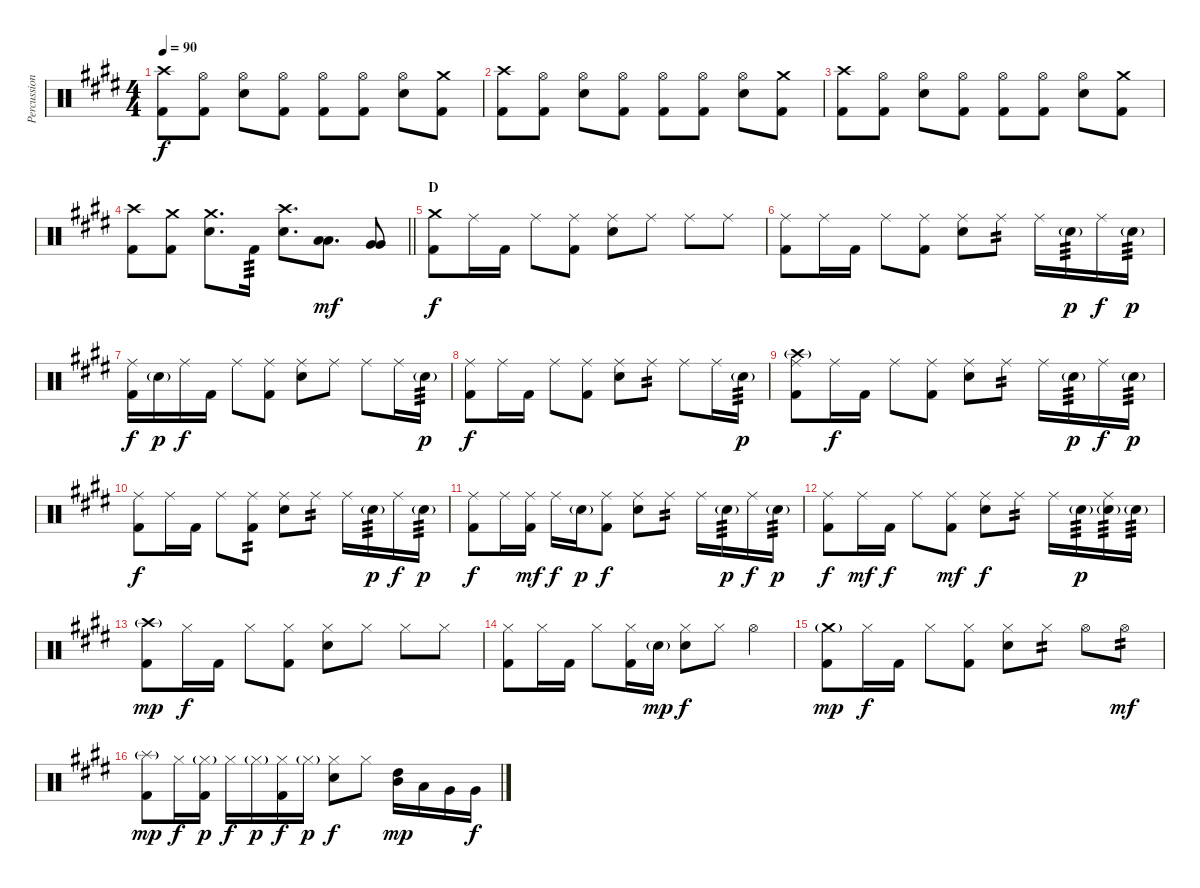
\track ("Percussion" "Percussion") {instrument percussion}
\staff {score}
\articulation defaults
\ts (4 4)
\tempo 90
\clef neutral
\ks c#minor
("Crash high (hit)" "Kick (hit) 2").8{dy f} ("Hi-Hat (open)" "Kick (hit) 2").8 ("Hi-Hat (open)" "Snare (hit) 2").8 ("Hi-Hat (open)" "Kick (hit) 2").8 ("Hi-Hat (open)" "Kick (hit) 2").8 ("Hi-Hat (open)" "Kick (hit) 2").8 ("Hi-Hat (open)" "Snare (hit) 2").8 ("Crash medium (hit)" "Kick (hit) 2").8 |
("Crash high (hit)" "Kick (hit) 2").8 ("Hi-Hat (open)" "Kick (hit) 2").8 ("Hi-Hat (open)" "Snare (hit) 2").8 ("Hi-Hat (open)" "Kick (hit) 2").8 ("Hi-Hat (open)" "Kick (hit) 2").8 ("Hi-Hat (open)" "Kick (hit) 2").8 ("Hi-Hat (open)" "Snare (hit) 2").8 ("Crash medium (hit)" "Kick (hit) 2").8 |
("Crash high (hit)" "Kick (hit) 2").8 ("Hi-Hat (open)" "Kick (hit) 2").8 ("Hi-Hat (open)" "Snare (hit) 2").8 ("Hi-Hat (open)" "Kick (hit) 2").8 ("Hi-Hat (open)" "Kick (hit) 2").8 ("Hi-Hat (open)" "Kick (hit) 2").8 ("Hi-Hat (open)" "Snare (hit) 2").8 ("Crash medium (hit)" "Kick (hit) 2").8 |
\barLineRight lightlight
("Crash high (hit)" "Kick (hit) 2").8 ("Crash medium (hit)" "Kick (hit) 2").8 ("Crash medium (hit)" "Snare (hit) 2").8{d} "Kick (hit) 2".16{tp 3} ("Crash high (hit)" "Snare (hit) 2").8{d} ("Low Tom (hit)" "Low Tom (hit)").8{d bu 60 dy mf} ("Very Low Tom (hit)" "Very Low Tom (hit)").8{bu 60} |
\section ("" "D")
("Crash medium (hit)" "Kick (hit) 2").8{dy f} "Ride (middle)".16 "Kick (hit) 2".16 "Ride (middle)".8 ("Ride (middle)" "Kick (hit) 2").8 ("Ride (middle)" "Snare (hit) 2").8 "Ride (middle)".8 "Ride (middle)".8 "Ride (middle)".8 |
("Ride (middle)" "Kick (hit) 2").8 "Ride (middle)".16 "Kick (hit) 2".16 "Ride (middle)".8 ("Ride (middle)" "Kick (hit) 2").8 ("Ride (middle)" "Snare (hit) 2").8 "Ride (middle)".8{tp 2} "Ride (middle)".16 "Snare (hit) 2"{g}.16{tp 3 dy p} "Ride (middle)".16{dy f} "Snare (hit) 2"{g}.16{tp 3 dy p} |
("Ride (middle)" "Kick (hit) 2").16{dy f} "Snare (hit) 2"{g}.16{dy p} "Ride (middle)".16{dy f} "Kick (hit) 2".16 "Ride (middle)".8 ("Ride (middle)" "Kick (hit) 2").8 ("Ride (middle)" "Snare (hit) 2").8 "Ride (middle)".8 "Ride (middle)".8 "Ride (middle)".16 "Snare (hit) 2"{g}.16{tp 3 dy p} |
("Ride (middle)" "Kick (hit) 2").8{dy f} "Ride (middle)".16 "Kick (hit) 2".16 "Ride (middle)".8 ("Ride (middle)" "Kick (hit) 2").8 ("Ride (middle)" "Snare (hit) 2").8 "Ride (middle)".8{tp 2} "Ride (middle)".8 "Ride (middle)".16 "Snare (hit) 2"{g}.16{tp 3 dy p} |
("Ride (middle)" "Crash high (hit)"{g} "Kick (hit) 2").8 "Ride (middle)".16{dy f} "Kick (hit) 2".16 "Ride (middle)".8 ("Ride (middle)" "Kick (hit) 2").8 ("Ride (middle)" "Snare (hit) 2").8 "Ride (middle)".8{tp 2} "Ride (middle)".16 "Snare (hit) 2"{g}.16{tp 3 dy p} "Ride (middle)".16{dy f} "Snare (hit) 2"{g}.16{tp 3 dy p} |
("Ride (middle)" "Kick (hit) 2").8{dy f} "Ride (middle)".16 "Kick (hit) 2".16 "Ride (middle)".8 ("Ride (middle)" "Kick (hit) 2").8{tp 2} ("Ride (middle)" "Snare (hit) 2").8 "Ride (middle)".8{tp 2} "Ride (middle)".16 "Snare (hit) 2"{g}.16{tp 3 dy p} "Ride (middle)".16{dy f} "Snare (hit) 2"{g}.16{tp 3 dy p} |
("Ride (middle)" "Kick (hit) 2").8{dy f} "Ride (middle)".16 ("Ride (middle)" "Kick (hit) 2").16{dy mf} "Ride (middle)".16{dy f} "Snare (hit) 2"{g}.16{dy p} ("Ride (middle)" "Kick (hit) 2").8{dy f} ("Ride (middle)" "Snare (hit) 2").8 "Ride (middle)".8{tp 2} "Ride (middle)".16 "Snare (hit) 2"{g}.16{tp 3 dy p} "Ride (middle)".16{dy f} "Snare (hit) 2"{g}.16{tp 3 dy p} |
("Ride (middle)" "Kick (hit) 2").8{dy f} "Ride (middle)".16{dy mf} "Kick (hit) 2".16{dy f} "Ride (middle)".8 ("Ride (middle)" "Kick (hit) 2").8{dy mf} ("Ride (middle)" "Snare (hit) 2").8{dy f} "Ride (middle)".8{tp 2} "Ride (middle)".16 "Snare (hit) 2"{g}.16{tp 3 dy p} ("Ride (middle)" "Snare (hit) 2"{g}).16{tp 3} "Snare (hit) 2"{g}.16{tp 3} |
("Crash high (hit)"{g} "Kick (hit) 2").8{dy mp} "Hi-Hat (closed)".16{dy f} "Kick (hit) 2".16 "Hi-Hat (closed)".8 ("Hi-Hat (closed)" "Kick (hit) 2").8 ("Hi-Hat (closed)" "Snare (hit) 2").8 "Hi-Hat (closed)".8 "Hi-Hat (closed)".8 "Hi-Hat (closed)".8 |
("Hi-Hat (closed)" "Kick (hit) 2").8 "Hi-Hat (closed)".16 "Kick (hit) 2".16 "Hi-Hat (closed)".8 ("Hi-Hat (closed)" "Kick (hit) 2").16 "Snare (hit) 2"{g}.16{dy mp} ("Hi-Hat (closed)" "Snare (hit) 2").8{dy f} "Hi-Hat (closed)".8 "Hi-Hat (open)".4 |
("Crash medium (hit)"{g} "Kick (hit) 2").8{dy mp} "Hi-Hat (closed)".16{dy f} "Kick (hit) 2".16 "Hi-Hat (closed)".8 ("Hi-Hat (closed)" "Kick (hit) 2").8 ("Hi-Hat (closed)" "Snare (hit) 2").8 "Hi-Hat (closed)".8{tp 2} "Hi-Hat (open)".8 "Hi-Hat (open)".8{tp 2 dy mf} |
("Splash (hit)"{g} "Kick (hit) 2").8{dy mp} "Hi-Hat (closed)".16{dy f} ("Hi-Hat (closed)"{g} "Kick (hit) 2").16{dy p} "Hi-Hat (closed)".16{dy f} "Hi-Hat (closed)"{g}.16{dy p} ("Hi-Hat (closed)" "Kick (hit) 2").16{dy f} "Hi-Hat (closed)"{g}.16{dy p} ("Hi-Hat (closed)" "Snare (hit) 2").8{dy f} "Hi-Hat (closed)".8 ("High Tom (hit)" "Mid Tom (hit)").16{bu 60 dy mp} "Low Tom (hit)".16 "Very Low Tom (hit)".16 "Very Low Tom (hit)".16{dy f}
